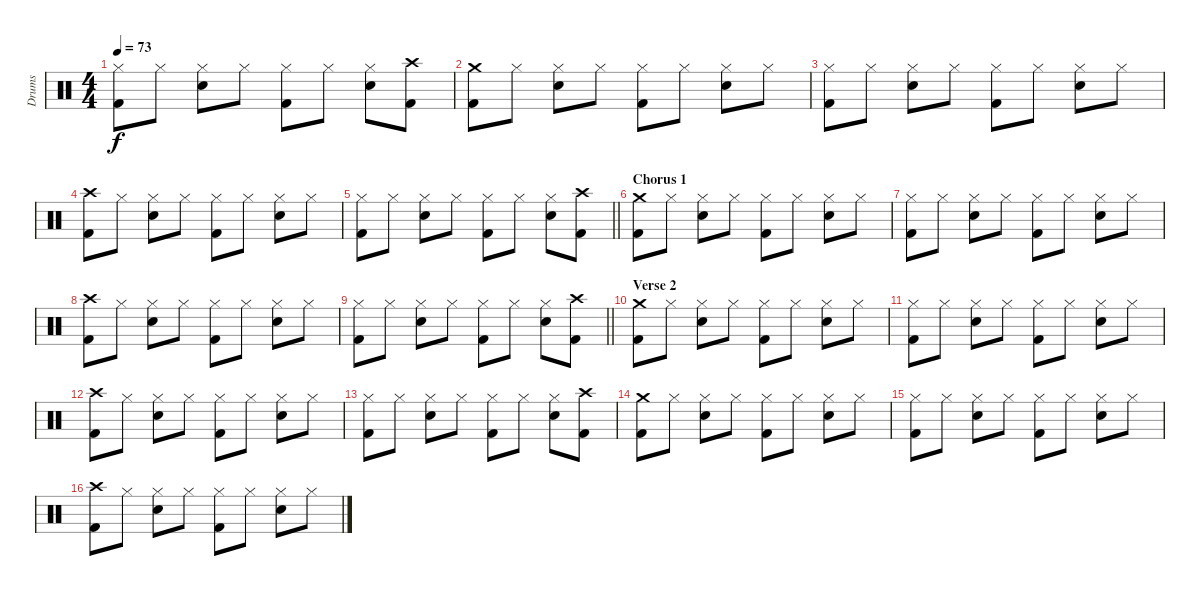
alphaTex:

\track ("Drums" "Drums") {instrument percussion}
\staff {score}
\articulation defaults
\ts (4 4)
\tempo 73
\clef neutral
\ks c
("Hi-Hat (closed)" "Kick (hit) 2").8{dy f} "Hi-Hat (closed)".8 ("Hi-Hat (closed)" "Electric Snare (hit)").8 "Hi-Hat (closed)".8 ("Hi-Hat (closed)" "Kick (hit) 2").8 "Hi-Hat (closed)".8 ("Hi-Hat (closed)" "Electric Snare (hit)").8 ("Crash high (hit)" "Kick (hit) 2").8 |
("Crash medium (hit)" "Kick (hit) 2").8 "Hi-Hat (closed)".8 ("Hi-Hat (closed)" "Electric Snare (hit)").8 "Hi-Hat (closed)".8 ("Hi-Hat (closed)" "Kick (hit) 2").8 "Hi-Hat (closed)".8 ("Hi-Hat (closed)" "Electric Snare (hit)").8 "Hi-Hat (closed)".8 |
("Hi-Hat (closed)" "Kick (hit) 2").8 "Hi-Hat (closed)".8 ("Hi-Hat (closed)" "Electric Snare (hit)").8 "Hi-Hat (closed)".8 ("Hi-Hat (closed)" "Kick (hit) 2").8 "Hi-Hat (closed)".8 ("Hi-Hat (closed)" "Electric Snare (hit)").8 "Hi-Hat (closed)".8 |
("Crash high (hit)" "Kick (hit) 2").8 "Hi-Hat (closed)".8 ("Hi-Hat (closed)" "Electric Snare (hit)").8 "Hi-Hat (closed)".8 ("Hi-Hat (closed)" "Kick (hit) 2").8 "Hi-Hat (closed)".8 ("Hi-Hat (closed)" "Electric Snare (hit)").8 "Hi-Hat (closed)".8 |
\barLineRight lightlight
("Hi-Hat (closed)" "Kick (hit) 2").8 "Hi-Hat (closed)".8 ("Hi-Hat (closed)" "Electric Snare (hit)").8 "Hi-Hat (closed)".8 ("Hi-Hat (closed)" "Kick (hit) 2").8 "Hi-Hat (closed)".8 ("Hi-Hat (closed)" "Electric Snare (hit)").8 ("Crash high (hit)" "Kick (hit) 2").8 |
\section ("" "Chorus 1")
("Crash medium (hit)" "Kick (hit) 2").8 "Hi-Hat (closed)".8 ("Hi-Hat (closed)" "Electric Snare (hit)").8 "Hi-Hat (closed)".8 ("Hi-Hat (closed)" "Kick (hit) 2").8 "Hi-Hat (closed)".8 ("Hi-Hat (closed)" "Electric Snare (hit)").8 "Hi-Hat (closed)".8 |
("Hi-Hat (closed)" "Kick (hit) 2").8 "Hi-Hat (closed)".8 ("Hi-Hat (closed)" "Electric Snare (hit)").8 "Hi-Hat (closed)".8 ("Hi-Hat (closed)" "Kick (hit) 2").8 "Hi-Hat (closed)".8 ("Hi-Hat (closed)" "Electric Snare (hit)").8 "Hi-Hat (closed)".8 |
("Crash high (hit)" "Kick (hit) 2").8 "Hi-Hat (closed)".8 ("Hi-Hat (closed)" "Electric Snare (hit)").8 "Hi-Hat (closed)".8 ("Hi-Hat (closed)" "Kick (hit) 2").8 "Hi-Hat (closed)".8 ("Hi-Hat (closed)" "Electric Snare (hit)").8 "Hi-Hat (closed)".8 |
\barLineRight lightlight
("Hi-Hat (closed)" "Kick (hit) 2").8 "Hi-Hat (closed)".8 ("Hi-Hat (closed)" "Electric Snare (hit)").8 "Hi-Hat (closed)".8 ("Hi-Hat (closed)" "Kick (hit) 2").8 "Hi-Hat (closed)".8 ("Hi-Hat (closed)" "Electric Snare (hit)").8 ("Crash high (hit)" "Kick (hit) 2").8 |
\section ("" "Verse 2")
("Crash medium (hit)" "Kick (hit) 2").8 "Hi-Hat (closed)".8 ("Hi-Hat (closed)" "Electric Snare (hit)").8 "Hi-Hat (closed)".8 ("Hi-Hat (closed)" "Kick (hit) 2").8 "Hi-Hat (closed)".8 ("Hi-Hat (closed)" "Electric Snare (hit)").8 "Hi-Hat (closed)".8 |
("Hi-Hat (closed)" "Kick (hit) 2").8 "Hi-Hat (closed)".8 ("Hi-Hat (closed)" "Electric Snare (hit)").8 "Hi-Hat (closed)".8 ("Hi-Hat (closed)" "Kick (hit) 2").8 "Hi-Hat (closed)".8 ("Hi-Hat (closed)" "Electric Snare (hit)").8 "Hi-Hat (closed)".8 |
("Crash high (hit)" "Kick (hit) 2").8 "Hi-Hat (closed)".8 ("Hi-Hat (closed)" "Electric Snare (hit)").8 "Hi-Hat (closed)".8 ("Hi-Hat (closed)" "Kick (hit) 2").8 "Hi-Hat (closed)".8 ("Hi-Hat (closed)" "Electric Snare (hit)").8 "Hi-Hat (closed)".8 |
("Hi-Hat (closed)" "Kick (hit) 2").8 "Hi-Hat (closed)".8 ("Hi-Hat (closed)" "Electric Snare (hit)").8 "Hi-Hat (closed)".8 ("Hi-Hat (closed)" "Kick (hit) 2").8 "Hi-Hat (closed)".8 ("Hi-Hat (closed)" "Electric Snare (hit)").8 ("Crash high (hit)" "Kick (hit) 2").8 |
("Crash medium (hit)" "Kick (hit) 2").8 "Hi-Hat (closed)".8 ("Hi-Hat (closed)" "Electric Snare (hit)").8 "Hi-Hat (closed)".8 ("Hi-Hat (closed)" "Kick (hit) 2").8 "Hi-Hat (closed)".8 ("Hi-Hat (closed)" "Electric Snare (hit)").8 "Hi-Hat (closed)".8 |
("Hi-Hat (closed)" "Kick (hit) 2").8 "Hi-Hat (closed)".8 ("Hi-Hat (closed)" "Electric Snare (hit)").8 "Hi-Hat (closed)".8 ("Hi-Hat (closed)" "Kick (hit) 2").8 "Hi-Hat (closed)".8 ("Hi-Hat (closed)" "Electric Snare (hit)").8 "Hi-Hat (closed)".8 |
("Crash high (hit)" "Kick (hit) 2").8 "Hi-Hat (closed)".8 ("Hi-Hat (closed)" "Electric Snare (hit)").8 "Hi-Hat (closed)".8 ("Hi-Hat (closed)" "Kick (hit) 2").8 "Hi-Hat (closed)".8 ("Hi-Hat (closed)" "Electric Snare (hit)").8 "Hi-Hat (closed)".8
